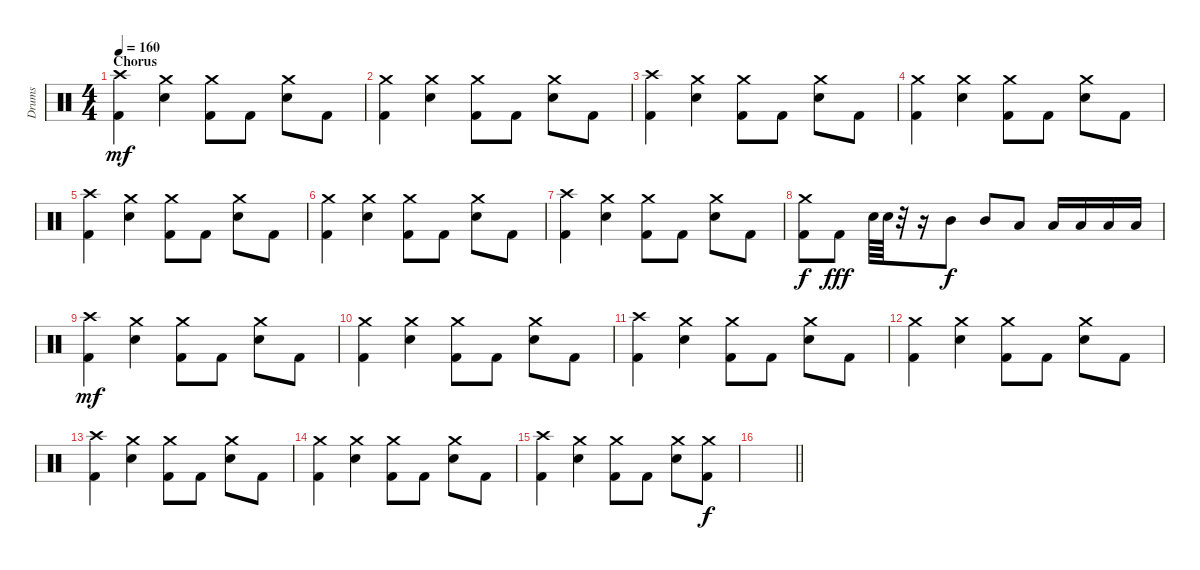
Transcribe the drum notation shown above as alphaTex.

\track ("Drums" "Drums") {instrument percussion}
\staff {score}
\articulation defaults
\ts (4 4)
\section ("" "Chorus")
\tempo 160
\clef neutral
\ks c
("Crash high (hit)" "Kick (hit) 2").4{dy mf} ("Crash medium (hit)" "Electric Snare (hit)").4 ("Crash medium (hit)" "Kick (hit) 2").8 "Kick (hit) 2".8 ("Crash medium (hit)" "Electric Snare (hit)").8 "Kick (hit) 2".8 |
("Crash medium (hit)" "Kick (hit) 2").4 ("Crash medium (hit)" "Electric Snare (hit)").4 ("Crash medium (hit)" "Kick (hit) 2").8 "Kick (hit) 2".8 ("Crash medium (hit)" "Electric Snare (hit)").8 "Kick (hit) 2".8 |
("Crash high (hit)" "Kick (hit) 2").4 ("Crash medium (hit)" "Electric Snare (hit)").4 ("Crash medium (hit)" "Kick (hit) 2").8 "Kick (hit) 2".8 ("Crash medium (hit)" "Electric Snare (hit)").8 "Kick (hit) 2".8 |
("Crash medium (hit)" "Kick (hit) 2").4 ("Crash medium (hit)" "Electric Snare (hit)").4 ("Crash medium (hit)" "Kick (hit) 2").8 "Kick (hit) 2".8 ("Crash medium (hit)" "Electric Snare (hit)").8 "Kick (hit) 2".8 |
("Crash high (hit)" "Kick (hit) 2").4 ("Crash medium (hit)" "Electric Snare (hit)").4 ("Crash medium (hit)" "Kick (hit) 2").8 "Kick (hit) 2".8 ("Crash medium (hit)" "Electric Snare (hit)").8 "Kick (hit) 2".8 |
("Crash medium (hit)" "Kick (hit) 2").4 ("Crash medium (hit)" "Electric Snare (hit)").4 ("Crash medium (hit)" "Kick (hit) 2").8 "Kick (hit) 2".8 ("Crash medium (hit)" "Electric Snare (hit)").8 "Kick (hit) 2".8 |
("Crash high (hit)" "Kick (hit) 2").4 ("Crash medium (hit)" "Electric Snare (hit)").4 ("Crash medium (hit)" "Kick (hit) 2").8 "Kick (hit) 2".8 ("Crash medium (hit)" "Electric Snare (hit)").8 "Kick (hit) 2".8 |
("Crash medium (hit)" "Kick (hit) 2").8{dy f} "Kick (hit) 2".8{dy fff} "Electric Snare (hit)".64 "Electric Snare (hit)".64 r.32 r.16 "Mid Tom (hit)".8{dy f} "Mid Tom (hit)".8 "Low Tom (hit)".8 "Low Tom (hit)".16 "Low Tom (hit)".16 "Low Floor Tom (hit)".16 "Low Floor Tom (hit)".16 |
("Crash high (hit)" "Kick (hit) 2").4{dy mf} ("Crash medium (hit)" "Electric Snare (hit)").4 ("Crash medium (hit)" "Kick (hit) 2").8 "Kick (hit) 2".8 ("Crash medium (hit)" "Electric Snare (hit)").8 "Kick (hit) 2".8 |
("Crash medium (hit)" "Kick (hit) 2").4 ("Crash medium (hit)" "Electric Snare (hit)").4 ("Crash medium (hit)" "Kick (hit) 2").8 "Kick (hit) 2".8 ("Crash medium (hit)" "Electric Snare (hit)").8 "Kick (hit) 2".8 |
("Crash high (hit)" "Kick (hit) 2").4 ("Crash medium (hit)" "Electric Snare (hit)").4 ("Crash medium (hit)" "Kick (hit) 2").8 "Kick (hit) 2".8 ("Crash medium (hit)" "Electric Snare (hit)").8 "Kick (hit) 2".8 |
("Crash medium (hit)" "Kick (hit) 2").4 ("Crash medium (hit)" "Electric Snare (hit)").4 ("Crash medium (hit)" "Kick (hit) 2").8 "Kick (hit) 2".8 ("Crash medium (hit)" "Electric Snare (hit)").8 "Kick (hit) 2".8 |
("Crash high (hit)" "Kick (hit) 2").4 ("Crash medium (hit)" "Electric Snare (hit)").4 ("Crash medium (hit)" "Kick (hit) 2").8 "Kick (hit) 2".8 ("Crash medium (hit)" "Electric Snare (hit)").8 "Kick (hit) 2".8 |
("Crash medium (hit)" "Kick (hit) 2").4 ("Crash medium (hit)" "Electric Snare (hit)").4 ("Crash medium (hit)" "Kick (hit) 2").8 "Kick (hit) 2".8 ("Crash medium (hit)" "Electric Snare (hit)").8 "Kick (hit) 2".8 |
("Crash high (hit)" "Kick (hit) 2").4 ("Crash medium (hit)" "Electric Snare (hit)").4 ("Crash medium (hit)" "Kick (hit) 2").8 "Kick (hit) 2".8 ("Crash medium (hit)" "Electric Snare (hit)").8 ("Crash medium (hit)" "Kick (hit) 2").8{dy f} |
\barLineRight lightlight
